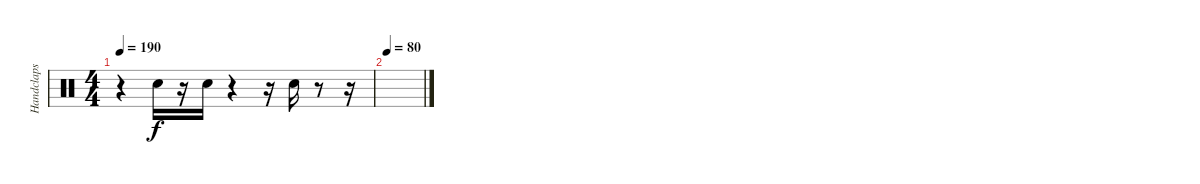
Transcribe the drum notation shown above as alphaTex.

\track ("Handclaps" "Handclaps") {instrument percussion}
\staff {score}
\articulation defaults
\ts (4 4)
\tempo 190
\clef neutral
\ks c
r.4{dy f} "Hand Clap (hit)".16 r.16 "Hand Clap (hit)".16 r.4 r.16 "Hand Clap (hit)".16 r.8 r.16 |
\tempo 80
